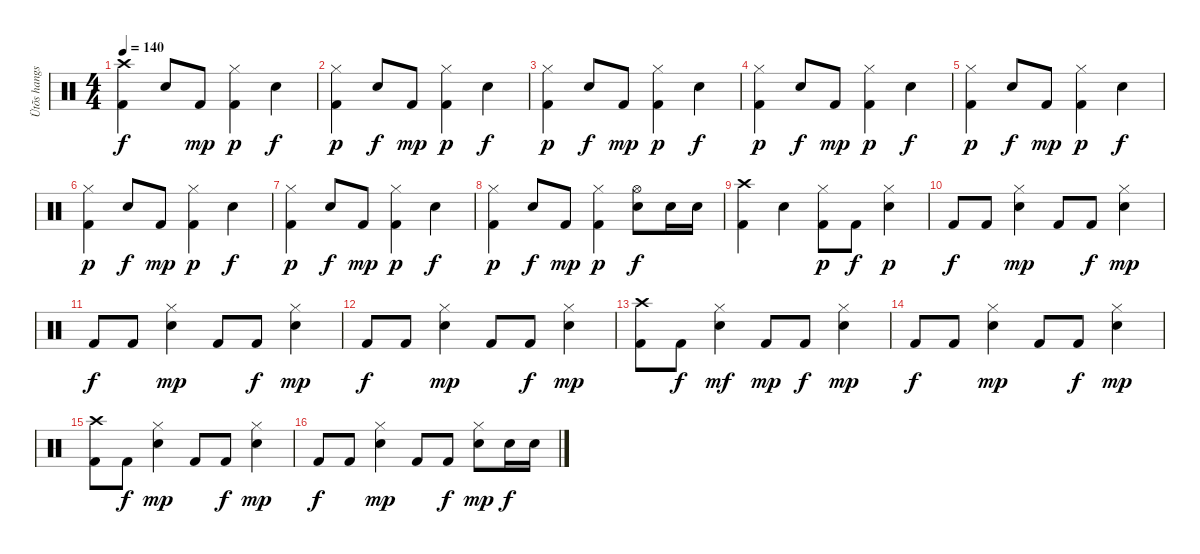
\track ("Ütõs hangszer" "Ütõs hangs") {instrument percussion}
\staff {score}
\articulation defaults
\ts (4 4)
\tempo 140
\clef neutral
\ks c
("Kick (hit) 2" "Crash high (hit)").4{dy f} "Electric Snare (hit)".8 "Kick (hit) 2".8{dy mp} ("Kick (hit) 2" "Hi-Hat (closed)").4{dy p} "Electric Snare (hit)".4{dy f} |
("Kick (hit) 2" "Hi-Hat (closed)").4{dy p} "Electric Snare (hit)".8{dy f} "Kick (hit) 2".8{dy mp} ("Kick (hit) 2" "Hi-Hat (closed)").4{dy p} "Electric Snare (hit)".4{dy f} |
("Kick (hit) 2" "Hi-Hat (closed)").4{dy p} "Electric Snare (hit)".8{dy f} "Kick (hit) 2".8{dy mp} ("Kick (hit) 2" "Hi-Hat (closed)").4{dy p} "Electric Snare (hit)".4{dy f} |
("Kick (hit) 2" "Hi-Hat (closed)").4{dy p} "Electric Snare (hit)".8{dy f} "Kick (hit) 2".8{dy mp} ("Kick (hit) 2" "Hi-Hat (closed)").4{dy p} "Electric Snare (hit)".4{dy f} |
("Kick (hit) 2" "Hi-Hat (closed)").4{dy p} "Electric Snare (hit)".8{dy f} "Kick (hit) 2".8{dy mp} ("Kick (hit) 2" "Hi-Hat (closed)").4{dy p} "Electric Snare (hit)".4{dy f} |
("Kick (hit) 2" "Hi-Hat (closed)").4{dy p} "Electric Snare (hit)".8{dy f} "Kick (hit) 2".8{dy mp} ("Kick (hit) 2" "Hi-Hat (closed)").4{dy p} "Electric Snare (hit)".4{dy f} |
("Kick (hit) 2" "Hi-Hat (closed)").4{dy p} "Electric Snare (hit)".8{dy f} "Kick (hit) 2".8{dy mp} ("Kick (hit) 2" "Hi-Hat (closed)").4{dy p} "Electric Snare (hit)".4{dy f} |
("Kick (hit) 2" "Hi-Hat (closed)").4{dy p} "Electric Snare (hit)".8{dy f} "Kick (hit) 2".8{dy mp} ("Kick (hit) 2" "Hi-Hat (closed)").4{dy p} ("Electric Snare (hit)" "Hi-Hat (open)").8{dy f} "Electric Snare (hit)".16 "Electric Snare (hit)".16 |
("Kick (hit) 2" "Crash high (hit)").4 "Electric Snare (hit)".4 ("Kick (hit) 2" "Hi-Hat (closed)").8{dy p} "Kick (hit) 2".8{dy f} ("Electric Snare (hit)" "Hi-Hat (closed)").4{dy p} |
"Kick (hit) 2".8{dy f} "Kick (hit) 2".8 ("Electric Snare (hit)" "Hi-Hat (closed)").4{dy mp} "Kick (hit) 2".8 "Kick (hit) 2".8{dy f} ("Electric Snare (hit)" "Hi-Hat (closed)").4{dy mp} |
"Kick (hit) 2".8{dy f} "Kick (hit) 2".8 ("Electric Snare (hit)" "Hi-Hat (closed)").4{dy mp} "Kick (hit) 2".8 "Kick (hit) 2".8{dy f} ("Electric Snare (hit)" "Hi-Hat (closed)").4{dy mp} |
"Kick (hit) 2".8{dy f} "Kick (hit) 2".8 ("Electric Snare (hit)" "Hi-Hat (closed)").4{dy mp} "Kick (hit) 2".8 "Kick (hit) 2".8{dy f} ("Electric Snare (hit)" "Hi-Hat (closed)").4{dy mp} |
("Kick (hit) 2" "Crash high (hit)").8 "Kick (hit) 2".8{dy f} ("Electric Snare (hit)" "Hi-Hat (closed)").4{dy mf} "Kick (hit) 2".8{dy mp} "Kick (hit) 2".8{dy f} ("Electric Snare (hit)" "Hi-Hat (closed)").4{dy mp} |
"Kick (hit) 2".8{dy f} "Kick (hit) 2".8 ("Electric Snare (hit)" "Hi-Hat (closed)").4{dy mp} "Kick (hit) 2".8 "Kick (hit) 2".8{dy f} ("Electric Snare (hit)" "Hi-Hat (closed)").4{dy mp} |
("Kick (hit) 2" "Crash high (hit)").8 "Kick (hit) 2".8{dy f} ("Electric Snare (hit)" "Hi-Hat (closed)").4{dy mp} "Kick (hit) 2".8 "Kick (hit) 2".8{dy f} ("Electric Snare (hit)" "Hi-Hat (closed)").4{dy mp} |
"Kick (hit) 2".8{dy f} "Kick (hit) 2".8 ("Electric Snare (hit)" "Hi-Hat (closed)").4{dy mp} "Kick (hit) 2".8 "Kick (hit) 2".8{dy f} ("Electric Snare (hit)" "Hi-Hat (closed)").8{dy mp} "Electric Snare (hit)".16{dy f} "Electric Snare (hit)".16
